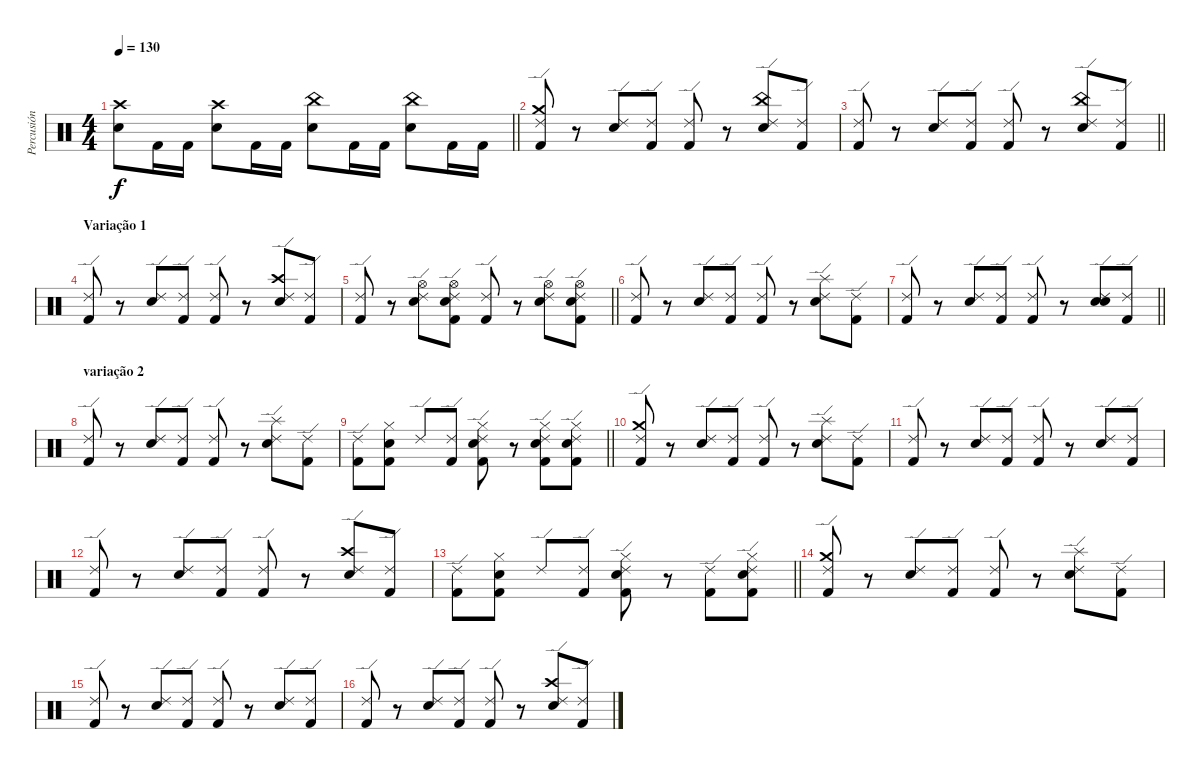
\track ("Percusión" "Percusión") {instrument percussion}
\staff {score}
\articulation defaults
\ts (4 4)
\tempo 130
\clef neutral
\barLineRight lightlight
\ks c
("Snare (hit) 2" "Crash high (hit)").8{dy f} "Kick (hit) 2".16 "Kick (hit) 2".16 ("Snare (hit) 2" "Crash high (hit)").8 "Kick (hit) 2".16 "Kick (hit) 2".16 ("Snare (hit) 2" "China (hit)").8 "Kick (hit) 2".16 "Kick (hit) 2".16 ("Snare (hit) 2" "China (hit)").8 "Kick (hit) 2".16 "Kick (hit) 2".16 |
("Kick (hit) 2" "Crash medium (hit)" "Ride (edge) 2").8 r.8 ("Snare (hit) 2" "Ride (edge) 2").8 ("Kick (hit) 2" "Ride (edge) 2").8 ("Kick (hit) 2" "Ride (edge) 2").8 r.8 ("Snare (hit) 2" "China (hit)" "Ride (edge) 2").8 ("Kick (hit) 2" "Ride (edge) 2").8 |
\barLineRight lightlight
("Kick (hit) 2" "Ride (edge) 2").8 r.8 ("Snare (hit) 2" "Ride (edge) 2").8 ("Kick (hit) 2" "Ride (edge) 2").8 ("Kick (hit) 2" "Ride (edge) 2").8 r.8 ("Snare (hit) 2" "China (hit)" "Ride (edge) 2").8 ("Kick (hit) 2" "Ride (edge) 2").8 |
\section ("" "Variação 1")
("Kick (hit) 2" "Ride (edge) 2").8 r.8 ("Snare (hit) 2" "Ride (edge) 2").8 ("Kick (hit) 2" "Ride (edge) 2").8 ("Kick (hit) 2" "Ride (edge) 2").8 r.8 ("Snare (hit) 2" "Crash high (hit)" "Ride (edge) 2").8 ("Kick (hit) 2" "Ride (edge) 2").8 |
\barLineRight lightlight
("Kick (hit) 2" "Ride (edge) 2").8 r.8 ("Electric Snare (hit)" "Hi-Hat (open)" "Ride (edge) 2").8 ("Kick (hit) 2" "Electric Snare (hit)" "Hi-Hat (open)" "Ride (edge) 2").8 ("Kick (hit) 2" "Ride (edge) 2").8 r.8 ("Electric Snare (hit)" "Hi-Hat (open)" "Ride (edge) 2").8 ("Kick (hit) 2" "Electric Snare (hit)" "Hi-Hat (open)" "Ride (edge) 2").8 |
("Kick (hit) 2" "Ride (edge) 2").8 r.8 ("Snare (hit) 2" "Ride (edge) 2").8 ("Kick (hit) 2" "Ride (edge) 2").8 ("Kick (hit) 2" "Ride (edge) 2").8 r.8 ("Snare (hit) 2" "Splash (hit)" "Ride (edge) 2").8 ("Kick (hit) 2" "Ride (edge) 2").8 |
\barLineRight lightlight
("Kick (hit) 2" "Ride (edge) 2").8 r.8 ("Snare (hit) 2" "Ride (edge) 2").8 ("Kick (hit) 2" "Ride (edge) 2").8 ("Kick (hit) 2" "Ride (edge) 2").8 r.8 ("Snare (hit) 2" "Electric Snare (hit)" "Ride (edge) 2").8 ("Kick (hit) 2" "Ride (edge) 2").8 |
\section ("" "variação 2")
("Kick (hit) 2" "Ride (edge) 2").8 r.8 ("Snare (hit) 2" "Ride (edge) 2").8 ("Kick (hit) 2" "Ride (edge) 2").8 ("Kick (hit) 2" "Ride (edge) 2").8 r.8 ("Snare (hit) 2" "Splash (hit)" "Ride (edge) 2").8 ("Kick (hit) 2" "Ride (edge) 2").8 |
\barLineRight lightlight
("Kick (hit) 2" "Ride (edge) 2").8 ("Kick (hit) 2" "Snare (hit) 2" "Hi-Hat (closed)").8 "Ride (edge) 2".8 ("Kick (hit) 2" "Ride (edge) 2").8 ("Kick (hit) 2" "Snare (hit) 2" "Hi-Hat (closed)" "Ride (edge) 2").8 r.8 ("Kick (hit) 2" "Snare (hit) 2" "Hi-Hat (closed)" "Ride (edge) 2").8 ("Kick (hit) 2" "Snare (hit) 2" "Hi-Hat (closed)" "Ride (edge) 2").8 |
("Kick (hit) 2" "Crash medium (hit)" "Ride (edge) 2").8 r.8 ("Snare (hit) 2" "Ride (edge) 2").8 ("Kick (hit) 2" "Ride (edge) 2").8 ("Kick (hit) 2" "Ride (edge) 2").8 r.8 ("Snare (hit) 2" "Splash (hit)" "Ride (edge) 2").8 ("Kick (hit) 2" "Ride (edge) 2").8 |
("Kick (hit) 2" "Ride (edge) 2").8 r.8 ("Snare (hit) 2" "Ride (edge) 2").8 ("Kick (hit) 2" "Ride (edge) 2").8 ("Kick (hit) 2" "Ride (edge) 2").8 r.8 ("Snare (hit) 2" "Ride (edge) 2").8 ("Kick (hit) 2" "Ride (edge) 2").8 |
("Kick (hit) 2" "Ride (edge) 2").8 r.8 ("Snare (hit) 2" "Ride (edge) 2").8 ("Kick (hit) 2" "Ride (edge) 2").8 ("Kick (hit) 2" "Ride (edge) 2").8 r.8 ("Snare (hit) 2" "Crash high (hit)" "Ride (edge) 2").8 ("Kick (hit) 2" "Ride (edge) 2").8 |
\barLineRight lightlight
("Kick (hit) 2" "Ride (edge) 2").8 ("Kick (hit) 2" "Snare (hit) 2" "Hi-Hat (closed)").8 "Ride (edge) 2".8 ("Kick (hit) 2" "Ride (edge) 2").8 ("Kick (hit) 2" "Snare (hit) 2" "Hi-Hat (closed)" "Ride (edge) 2").8 r.8 ("Kick (hit) 2" "Ride (edge) 2").8 ("Kick (hit) 2" "Snare (hit) 2" "Hi-Hat (closed)" "Ride (edge) 2").8 |
("Kick (hit) 2" "Crash medium (hit)" "Ride (edge) 2").8 r.8 ("Snare (hit) 2" "Ride (edge) 2").8 ("Kick (hit) 2" "Ride (edge) 2").8 ("Kick (hit) 2" "Ride (edge) 2").8 r.8 ("Snare (hit) 2" "Splash (hit)" "Ride (edge) 2").8 ("Kick (hit) 2" "Ride (edge) 2").8 |
("Kick (hit) 2" "Ride (edge) 2").8 r.8 ("Snare (hit) 2" "Ride (edge) 2").8 ("Kick (hit) 2" "Ride (edge) 2").8 ("Kick (hit) 2" "Ride (edge) 2").8 r.8 ("Snare (hit) 2" "Ride (edge) 2").8 ("Kick (hit) 2" "Ride (edge) 2").8 |
("Kick (hit) 2" "Ride (edge) 2").8 r.8 ("Snare (hit) 2" "Ride (edge) 2").8 ("Kick (hit) 2" "Ride (edge) 2").8 ("Kick (hit) 2" "Ride (edge) 2").8 r.8 ("Snare (hit) 2" "Crash high (hit)" "Ride (edge) 2").8 ("Kick (hit) 2" "Ride (edge) 2").8
